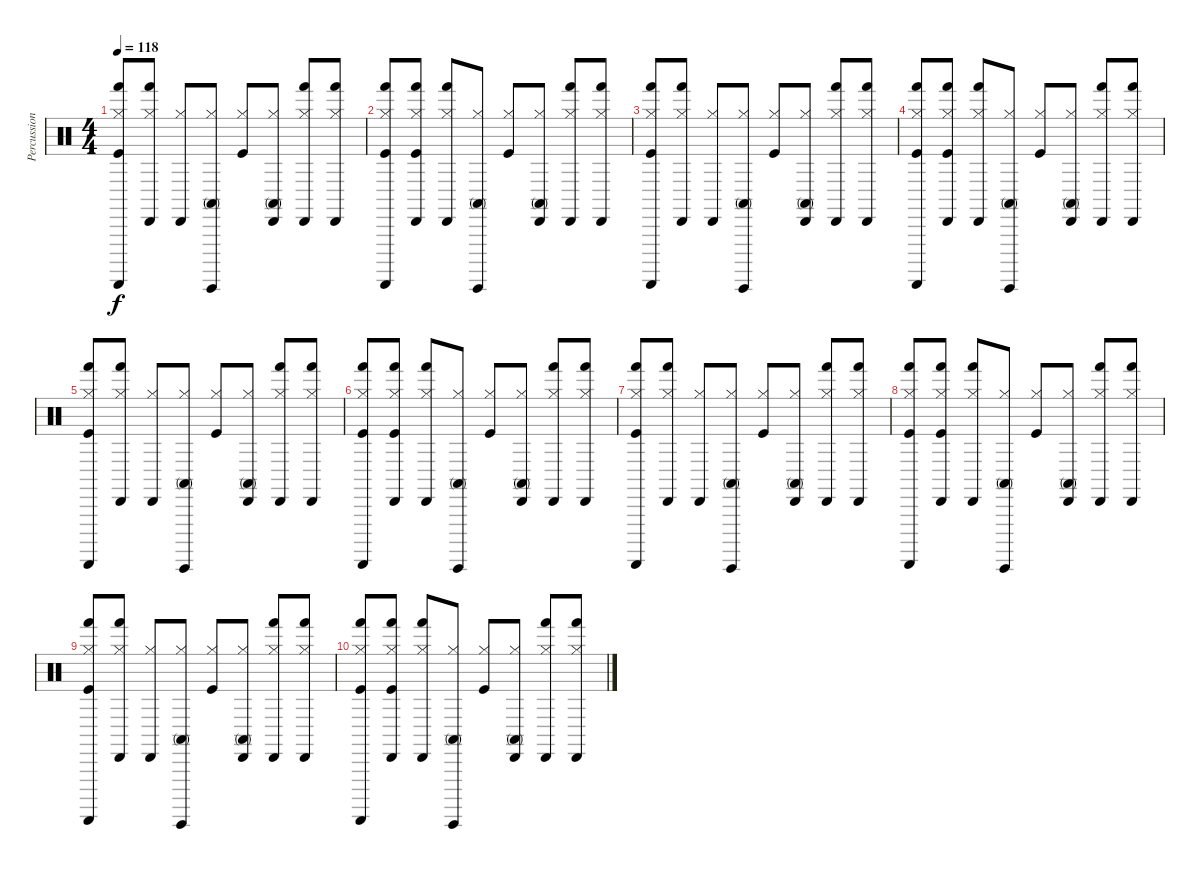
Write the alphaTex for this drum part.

\track ("Percussion" "Percussion") {instrument percussion}
\staff {score}
\articulation defaults
\ts (4 4)
\tempo 118
\clef neutral
\ks c
("Kick (hit)" "Guiro (scrap-return)" "Hand (hit)" "Hi-Hat (closed)").8{dy f} ("Cabasa (hit)" "Hand (hit)" "Hi-Hat (closed)").8 ("Cabasa (hit)" "Hi-Hat (closed)").8 ("Guiro (hit)" "Conga high (mute)" "Hi-Hat (closed)").8 ("Kick (hit)" "Hi-Hat (closed)").8 ("Cabasa (hit)" "Conga high (mute)" "Hi-Hat (closed)").8 ("Cabasa (hit)" "Hand (hit)" "Hi-Hat (closed)").8 ("Cabasa (hit)" "Hand (hit)" "Hi-Hat (closed)").8 |
("Kick (hit)" "Guiro (scrap-return)" "Hand (hit)" "Hi-Hat (closed)").8 ("Cabasa (hit)" "Kick (hit)" "Hand (hit)" "Hi-Hat (closed)").8 ("Cabasa (hit)" "Hand (hit)" "Hi-Hat (closed)").8 ("Guiro (hit)" "Conga high (mute)" "Hi-Hat (closed)").8 ("Kick (hit)" "Hi-Hat (closed)").8 ("Cabasa (hit)" "Conga high (mute)" "Hi-Hat (closed)").8 ("Cabasa (hit)" "Hand (hit)" "Hi-Hat (closed)").8 ("Cabasa (hit)" "Hand (hit)" "Hi-Hat (closed)").8 |
("Kick (hit)" "Guiro (scrap-return)" "Hand (hit)" "Hi-Hat (closed)").8 ("Cabasa (hit)" "Hand (hit)" "Hi-Hat (closed)").8 ("Cabasa (hit)" "Hi-Hat (closed)").8 ("Guiro (hit)" "Conga high (mute)" "Hi-Hat (closed)").8 ("Kick (hit)" "Hi-Hat (closed)").8 ("Cabasa (hit)" "Conga high (mute)" "Hi-Hat (closed)").8 ("Cabasa (hit)" "Hand (hit)" "Hi-Hat (closed)").8 ("Cabasa (hit)" "Hand (hit)" "Hi-Hat (closed)").8 |
("Kick (hit)" "Guiro (scrap-return)" "Hand (hit)" "Hi-Hat (closed)").8 ("Cabasa (hit)" "Kick (hit)" "Hand (hit)" "Hi-Hat (closed)").8 ("Cabasa (hit)" "Hand (hit)" "Hi-Hat (closed)").8 ("Guiro (hit)" "Conga high (mute)" "Hi-Hat (closed)").8 ("Kick (hit)" "Hi-Hat (closed)").8 ("Cabasa (hit)" "Conga high (mute)" "Hi-Hat (closed)").8 ("Cabasa (hit)" "Hand (hit)" "Hi-Hat (closed)").8 ("Cabasa (hit)" "Hand (hit)" "Hi-Hat (closed)").8 |
("Kick (hit)" "Guiro (scrap-return)" "Hand (hit)" "Hi-Hat (closed)").8 ("Cabasa (hit)" "Hand (hit)" "Hi-Hat (closed)").8 ("Cabasa (hit)" "Hi-Hat (closed)").8 ("Guiro (hit)" "Conga high (mute)" "Hi-Hat (closed)").8 ("Kick (hit)" "Hi-Hat (closed)").8 ("Cabasa (hit)" "Conga high (mute)" "Hi-Hat (closed)").8 ("Cabasa (hit)" "Hand (hit)" "Hi-Hat (closed)").8 ("Cabasa (hit)" "Hand (hit)" "Hi-Hat (closed)").8 |
("Kick (hit)" "Guiro (scrap-return)" "Hand (hit)" "Hi-Hat (closed)").8 ("Cabasa (hit)" "Kick (hit)" "Hand (hit)" "Hi-Hat (closed)").8 ("Cabasa (hit)" "Hand (hit)" "Hi-Hat (closed)").8 ("Guiro (hit)" "Conga high (mute)" "Hi-Hat (closed)").8 ("Kick (hit)" "Hi-Hat (closed)").8 ("Cabasa (hit)" "Conga high (mute)" "Hi-Hat (closed)").8 ("Cabasa (hit)" "Hand (hit)" "Hi-Hat (closed)").8 ("Cabasa (hit)" "Hand (hit)" "Hi-Hat (closed)").8 |
("Kick (hit)" "Guiro (scrap-return)" "Hand (hit)" "Hi-Hat (closed)").8 ("Cabasa (hit)" "Hand (hit)" "Hi-Hat (closed)").8 ("Cabasa (hit)" "Hi-Hat (closed)").8 ("Guiro (hit)" "Conga high (mute)" "Hi-Hat (closed)").8 ("Kick (hit)" "Hi-Hat (closed)").8 ("Cabasa (hit)" "Conga high (mute)" "Hi-Hat (closed)").8 ("Cabasa (hit)" "Hand (hit)" "Hi-Hat (closed)").8 ("Cabasa (hit)" "Hand (hit)" "Hi-Hat (closed)").8 |
("Kick (hit)" "Guiro (scrap-return)" "Hand (hit)" "Hi-Hat (closed)").8 ("Cabasa (hit)" "Kick (hit)" "Hand (hit)" "Hi-Hat (closed)").8 ("Cabasa (hit)" "Hand (hit)" "Hi-Hat (closed)").8 ("Guiro (hit)" "Conga high (mute)" "Hi-Hat (closed)").8 ("Kick (hit)" "Hi-Hat (closed)").8 ("Cabasa (hit)" "Conga high (mute)" "Hi-Hat (closed)").8 ("Cabasa (hit)" "Hand (hit)" "Hi-Hat (closed)").8 ("Cabasa (hit)" "Hand (hit)" "Hi-Hat (closed)").8 |
("Kick (hit)" "Guiro (scrap-return)" "Hand (hit)" "Hi-Hat (closed)").8 ("Cabasa (hit)" "Hand (hit)" "Hi-Hat (closed)").8 ("Cabasa (hit)" "Hi-Hat (closed)").8 ("Guiro (hit)" "Conga high (mute)" "Hi-Hat (closed)").8 ("Kick (hit)" "Hi-Hat (closed)").8 ("Cabasa (hit)" "Conga high (mute)" "Hi-Hat (closed)").8 ("Cabasa (hit)" "Hand (hit)" "Hi-Hat (closed)").8 ("Cabasa (hit)" "Hand (hit)" "Hi-Hat (closed)").8 |
("Kick (hit)" "Guiro (scrap-return)" "Hand (hit)" "Hi-Hat (closed)").8 ("Cabasa (hit)" "Kick (hit)" "Hand (hit)" "Hi-Hat (closed)").8 ("Cabasa (hit)" "Hand (hit)" "Hi-Hat (closed)").8 ("Guiro (hit)" "Conga high (mute)" "Hi-Hat (closed)").8 ("Kick (hit)" "Hi-Hat (closed)").8 ("Cabasa (hit)" "Conga high (mute)" "Hi-Hat (closed)").8 ("Cabasa (hit)" "Hand (hit)" "Hi-Hat (closed)").8 ("Cabasa (hit)" "Hand (hit)" "Hi-Hat (closed)").8
